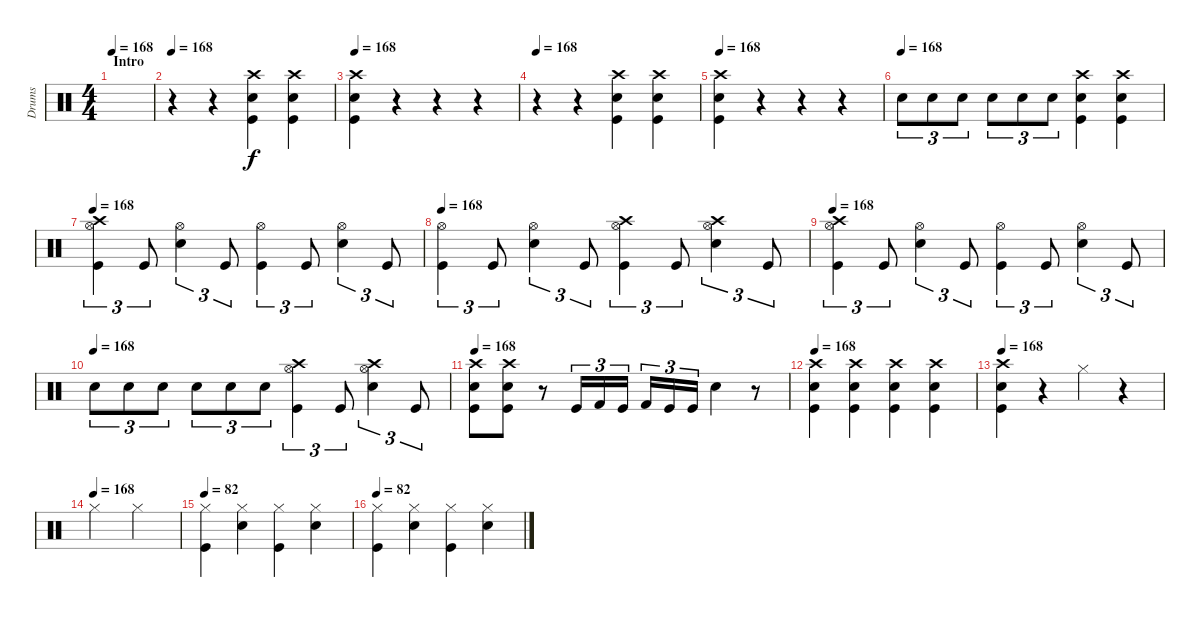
\track ("Drums" "Drums") {instrument percussion}
\staff {score}
\articulation defaults
\ts (4 4)
\section ("" "Intro")
\tempo 168
\clef neutral
\ks c
|
\tempo 168
r.4 r.4 ("Crash high (hit)" "Snare (hit) 2" "Kick (hit)").4 ("Crash high (hit)" "Snare (hit) 2" "Kick (hit)").4 |
\tempo 168
("Crash high (hit)" "Snare (hit) 2" "Kick (hit)").4 r.4 r.4 r.4 |
\tempo 168
r.4 r.4 ("Crash high (hit)" "Snare (hit) 2" "Kick (hit)").4 ("Crash high (hit)" "Snare (hit) 2" "Kick (hit)").4 |
\tempo 168
("Crash high (hit)" "Snare (hit) 2" "Kick (hit)").4 r.4 r.4 r.4 |
\tempo (168)
"Snare (hit) 2".8{tu (3 2)} "Snare (hit) 2".8{tu (3 2)} "Snare (hit) 2".8{tu (3 2)} "Snare (hit) 2".8{tu (3 2)} "Snare (hit) 2".8{tu (3 2)} "Snare (hit) 2".8{tu (3 2)} ("Crash high (hit)" "Snare (hit) 2" "Kick (hit)").4 ("Crash high (hit)" "Snare (hit) 2" "Kick (hit)").4 |
\tempo 168
("Hi-Hat (open)" "Crash high (hit)" "Kick (hit)").4{tu (3 2)} "Kick (hit)".8{tu (3 2)} ("Hi-Hat (open)" "Snare (hit) 2").4{tu (3 2)} "Kick (hit)".8{tu (3 2)} ("Hi-Hat (open)" "Kick (hit)").4{tu (3 2)} "Kick (hit)".8{tu (3 2)} ("Hi-Hat (open)" "Snare (hit) 2").4{tu (3 2)} "Kick (hit)".8{tu (3 2)} |
\tempo 168
("Hi-Hat (open)" "Kick (hit)").4{tu (3 2)} "Kick (hit)".8{tu (3 2)} ("Hi-Hat (open)" "Snare (hit) 2").4{tu (3 2)} "Kick (hit)".8{tu (3 2)} ("Hi-Hat (open)" "Crash high (hit)" "Kick (hit)").4{tu (3 2)} "Kick (hit)".8{tu (3 2)} ("Hi-Hat (open)" "Crash high (hit)" "Snare (hit) 2").4{tu (3 2)} "Kick (hit)".8{tu (3 2)} |
\tempo 168
("Hi-Hat (open)" "Crash high (hit)" "Kick (hit)").4{tu (3 2)} "Kick (hit)".8{tu (3 2)} ("Hi-Hat (open)" "Snare (hit) 2").4{tu (3 2)} "Kick (hit)".8{tu (3 2)} ("Hi-Hat (open)" "Kick (hit)").4{tu (3 2)} "Kick (hit)".8{tu (3 2)} ("Hi-Hat (open)" "Snare (hit) 2").4{tu (3 2)} "Kick (hit)".8{tu (3 2)} |
\tempo (168)
"Snare (hit) 2".8{tu (3 2)} "Snare (hit) 2".8{tu (3 2)} "Snare (hit) 2".8{tu (3 2)} "Snare (hit) 2".8{tu (3 2)} "Snare (hit) 2".8{tu (3 2)} "Snare (hit) 2".8{tu (3 2)} ("Hi-Hat (open)" "Crash high (hit)" "Kick (hit)").4{tu (3 2)} "Kick (hit)".8{tu (3 2)} ("Hi-Hat (open)" "Crash high (hit)" "Snare (hit) 2").4{tu (3 2)} "Kick (hit)".8{tu (3 2)} |
\tempo 168
("Crash high (hit)" "Snare (hit) 2" "Kick (hit)").8 ("Crash high (hit)" "Snare (hit) 2" "Kick (hit)").8 r.8 "Kick (hit)".16{tu (3 2)} "Kick (hit) 2".16{tu (3 2)} "Kick (hit)".16{tu (3 2)} "Kick (hit) 2".16{tu (3 2)} "Kick (hit)".16{tu (3 2)} "Kick (hit)".16{tu (3 2)} "Snare (hit) 2".4 r.8 |
\tempo 168
("Crash high (hit)" "Snare (hit) 2" "Kick (hit)").4 ("Crash high (hit)" "Snare (hit) 2" "Kick (hit)").4 ("Crash high (hit)" "Snare (hit) 2" "Kick (hit)").4 ("Crash high (hit)" "Snare (hit) 2" "Kick (hit)").4 |
\tempo 168
("Crash high (hit)" "Snare (hit) 2" "Kick (hit)").4 r.4 "Hi-Hat (closed)".4 r.4 |
\tempo (168)
"Hi-Hat (closed)".2 "Hi-Hat (closed)".2 |
\tempo 82
("Hi-Hat (closed)" "Kick (hit)").4 ("Hi-Hat (closed)" "Snare (hit) 2").4 ("Hi-Hat (closed)" "Kick (hit)").4 ("Hi-Hat (closed)" "Snare (hit) 2").4 |
\tempo 82
("Hi-Hat (closed)" "Kick (hit)").4 ("Hi-Hat (closed)" "Snare (hit) 2").4 ("Hi-Hat (closed)" "Kick (hit)").4 ("Hi-Hat (closed)" "Snare (hit) 2").4
